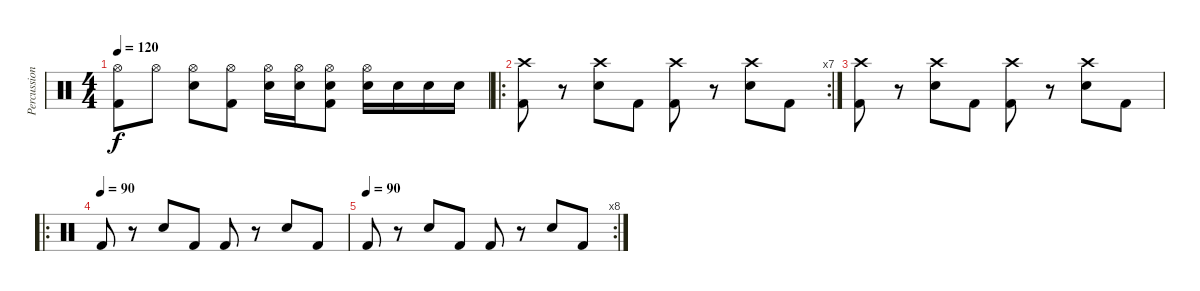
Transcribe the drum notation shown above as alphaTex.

\track ("Percussions" "Percussion") {instrument percussion}
\staff {score}
\articulation defaults
\ts (4 4)
\tempo 120
\clef neutral
\ks c
("Kick (hit) 2" "Hi-Hat (open)").8{dy f} "Hi-Hat (open)".8 ("Snare (hit) 2" "Hi-Hat (open)").8 ("Kick (hit) 2" "Hi-Hat (open)").8 ("Snare (hit) 2" "Hi-Hat (open)").16 ("Snare (hit) 2" "Hi-Hat (open)").16 ("Kick (hit) 2" "Snare (hit) 2" "Hi-Hat (open)").8 ("Snare (hit) 2" "Hi-Hat (open)").16 "Snare (hit) 2".16 "Snare (hit) 2".16 "Snare (hit) 2".16 |
\ro
\rc 7
("Kick (hit) 2" "Crash high (hit)").8 r.8 ("Snare (hit) 2" "Crash high (hit)").8 "Kick (hit) 2".8 ("Kick (hit) 2" "Crash high (hit)").8 r.8 ("Snare (hit) 2" "Crash high (hit)").8 "Kick (hit) 2".8 |
("Kick (hit) 2" "Crash high (hit)").8 r.8 ("Snare (hit) 2" "Crash high (hit)").8 "Kick (hit) 2".8 ("Kick (hit) 2" "Crash high (hit)").8 r.8 ("Snare (hit) 2" "Crash high (hit)").8 "Kick (hit) 2".8 |
\ro
\tempo (90)
"Kick (hit) 2".8 r.8 "Snare (hit) 2".8 "Kick (hit) 2".8 "Kick (hit) 2".8 r.8 "Snare (hit) 2".8 "Kick (hit) 2".8 |
\rc 8
\tempo (90)
"Kick (hit) 2".8 r.8 "Snare (hit) 2".8 "Kick (hit) 2".8 "Kick (hit) 2".8 r.8 "Snare (hit) 2".8 "Kick (hit) 2".8
